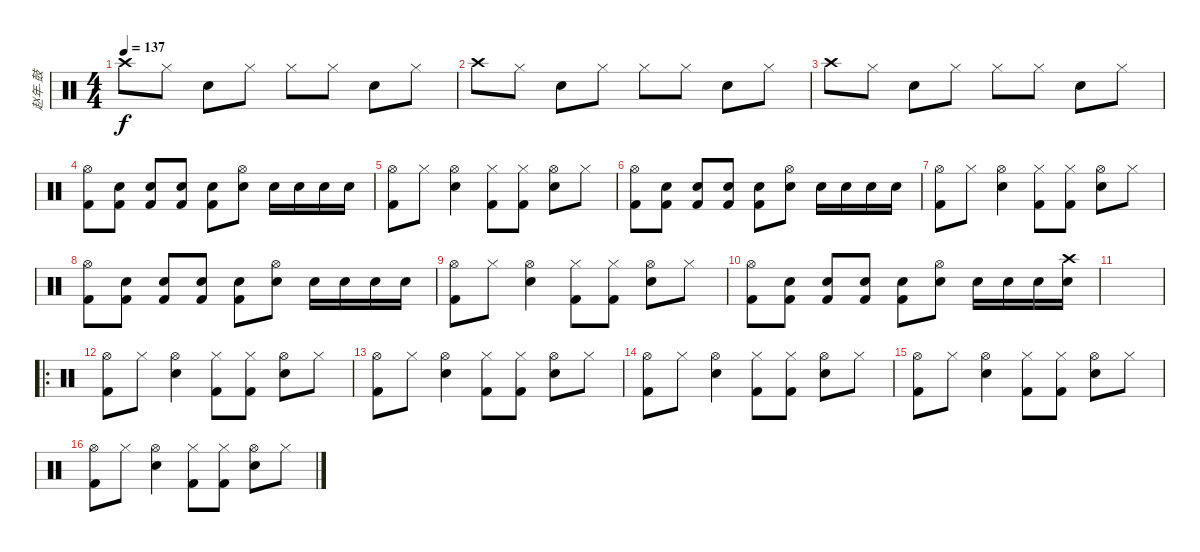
\track ("赵年-鼓" "赵年-鼓") {instrument percussion}
\staff {score}
\articulation defaults
\ts (4 4)
\tempo 137
\clef neutral
\ks c "Crash high (hit)".8{dy f} "Hi-Hat (closed)".8 "Snare (hit) 2".8 "Hi-Hat (closed)".8 "Hi-Hat (closed)".8 "Hi-Hat (closed)".8 "Snare (hit) 2".8 "Hi-Hat (closed)".8
|
"Crash high (hit)".8 "Hi-Hat (closed)".8 "Snare (hit) 2".8 "Hi-Hat (closed)".8 "Hi-Hat (closed)".8 "Hi-Hat (closed)".8 "Snare (hit) 2".8 "Hi-Hat (closed)".8 |
"Crash high (hit)".8 "Hi-Hat (closed)".8 "Snare (hit) 2".8 "Hi-Hat (closed)".8 "Hi-Hat (closed)".8 "Hi-Hat (closed)".8 "Snare (hit) 2".8 "Hi-Hat (closed)".8 |
("Hi-Hat (open)" "Kick (hit) 2").8 ("Electric Snare (hit)" "Kick (hit) 2").8 ("Electric Snare (hit)" "Kick (hit) 2").8 ("Electric Snare (hit)" "Kick (hit) 2").8 ("Electric Snare (hit)" "Kick (hit) 2").8 ("Hi-Hat (open)" "Electric Snare (hit)").8 "Electric Snare (hit)".16 "Electric Snare (hit)".16 "Electric Snare (hit)".16 "Electric Snare (hit)".16 |
("Hi-Hat (open)" "Kick (hit) 2").8 "Hi-Hat (closed)".8 ("Electric Snare (hit)" "Hi-Hat (open)").4 ("Hi-Hat (closed)" "Kick (hit) 2").8 ("Hi-Hat (closed)" "Kick (hit) 2").8 ("Hi-Hat (open)" "Electric Snare (hit)").8 "Hi-Hat (closed)".8 |
("Hi-Hat (open)" "Kick (hit) 2").8 ("Electric Snare (hit)" "Kick (hit) 2").8 ("Electric Snare (hit)" "Kick (hit) 2").8 ("Electric Snare (hit)" "Kick (hit) 2").8 ("Electric Snare (hit)" "Kick (hit) 2").8 ("Hi-Hat (open)" "Electric Snare (hit)").8 "Electric Snare (hit)".16 "Electric Snare (hit)".16 "Electric Snare (hit)".16 "Electric Snare (hit)".16 |
("Hi-Hat (open)" "Kick (hit) 2").8 "Hi-Hat (closed)".8 ("Electric Snare (hit)" "Hi-Hat (open)").4 ("Hi-Hat (closed)" "Kick (hit) 2").8 ("Hi-Hat (closed)" "Kick (hit) 2").8 ("Hi-Hat (open)" "Electric Snare (hit)").8 "Hi-Hat (closed)".8 |
("Hi-Hat (open)" "Kick (hit) 2").8 ("Electric Snare (hit)" "Kick (hit) 2").8 ("Electric Snare (hit)" "Kick (hit) 2").8 ("Electric Snare (hit)" "Kick (hit) 2").8 ("Electric Snare (hit)" "Kick (hit) 2").8 ("Hi-Hat (open)" "Electric Snare (hit)").8 "Electric Snare (hit)".16 "Electric Snare (hit)".16 "Electric Snare (hit)".16 "Electric Snare (hit)".16 |
("Hi-Hat (open)" "Kick (hit) 2").8 "Hi-Hat (closed)".8 ("Electric Snare (hit)" "Hi-Hat (open)").4 ("Hi-Hat (closed)" "Kick (hit) 2").8 ("Hi-Hat (closed)" "Kick (hit) 2").8 ("Hi-Hat (open)" "Electric Snare (hit)").8 "Hi-Hat (closed)".8 |
("Hi-Hat (open)" "Kick (hit) 2").8 ("Electric Snare (hit)" "Kick (hit) 2").8 ("Electric Snare (hit)" "Kick (hit) 2").8 ("Electric Snare (hit)" "Kick (hit) 2").8 ("Electric Snare (hit)" "Kick (hit) 2").8 ("Hi-Hat (open)" "Electric Snare (hit)").8 "Electric Snare (hit)".16 "Electric Snare (hit)".16 "Electric Snare (hit)".16 ("Electric Snare (hit)" "Crash high (hit)").16 |
|
\ro
("Hi-Hat (open)" "Kick (hit) 2").8 "Hi-Hat (closed)".8 ("Electric Snare (hit)" "Hi-Hat (open)").4 ("Hi-Hat (closed)" "Kick (hit) 2").8 ("Hi-Hat (closed)" "Kick (hit) 2").8 ("Hi-Hat (open)" "Electric Snare (hit)").8 "Hi-Hat (closed)".8 |
("Hi-Hat (open)" "Kick (hit) 2").8 "Hi-Hat (closed)".8 ("Electric Snare (hit)" "Hi-Hat (open)").4 ("Hi-Hat (closed)" "Kick (hit) 2").8 ("Hi-Hat (closed)" "Kick (hit) 2").8 ("Hi-Hat (open)" "Electric Snare (hit)").8 "Hi-Hat (closed)".8 |
("Hi-Hat (open)" "Kick (hit) 2").8 "Hi-Hat (closed)".8 ("Electric Snare (hit)" "Hi-Hat (open)").4 ("Hi-Hat (closed)" "Kick (hit) 2").8 ("Hi-Hat (closed)" "Kick (hit) 2").8 ("Hi-Hat (open)" "Electric Snare (hit)").8 "Hi-Hat (closed)".8 |
("Hi-Hat (open)" "Kick (hit) 2").8 "Hi-Hat (closed)".8 ("Electric Snare (hit)" "Hi-Hat (open)").4 ("Hi-Hat (closed)" "Kick (hit) 2").8 ("Hi-Hat (closed)" "Kick (hit) 2").8 ("Hi-Hat (open)" "Electric Snare (hit)").8 "Hi-Hat (closed)".8 |
("Hi-Hat (open)" "Kick (hit) 2").8 "Hi-Hat (closed)".8 ("Electric Snare (hit)" "Hi-Hat (open)").4 ("Hi-Hat (closed)" "Kick (hit) 2").8 ("Hi-Hat (closed)" "Kick (hit) 2").8 ("Hi-Hat (open)" "Electric Snare (hit)").8 "Hi-Hat (closed)".8
